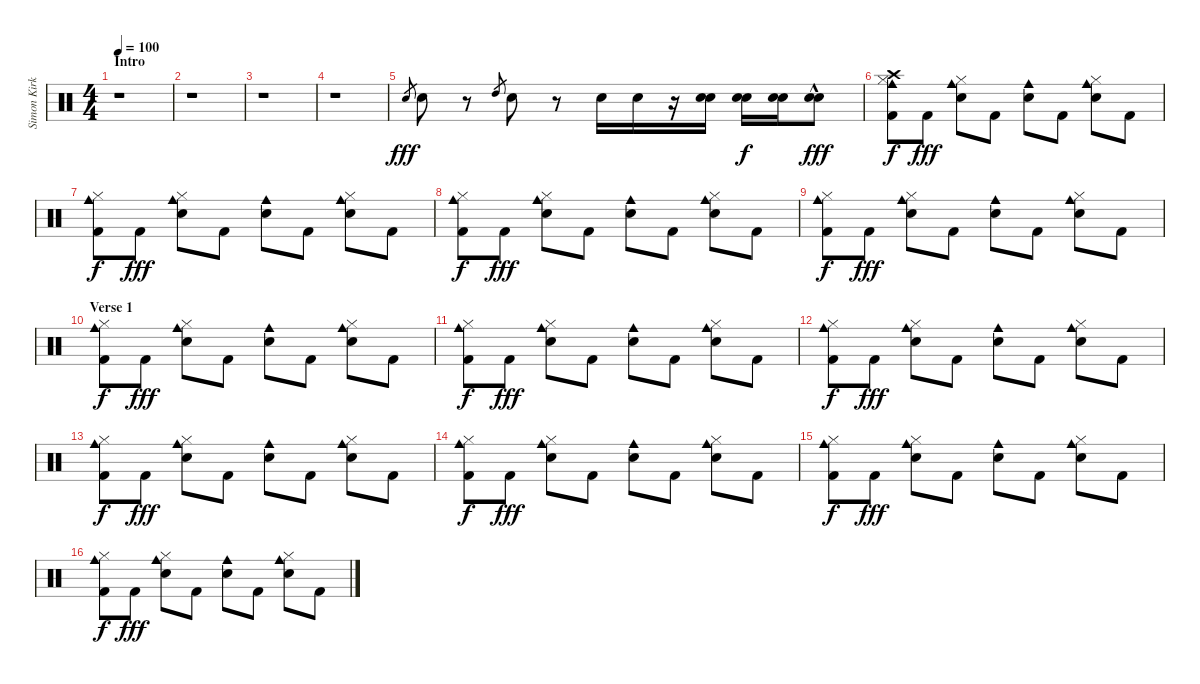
\track ("Simon Kirke" "Simon Kirk") {instrument percussion}
\staff {score}
\articulation defaults
\ts (4 4)
\section ("" "Intro")
\tempo 100
\clef neutral
\ks c
r.1{dy fff} |
r.1 |
r.1 |
r.1 |
"Electric Snare (hit)".8{gr} "Electric Snare (hit)".8 r.8 "High Tom (hit)".8{gr} "Electric Snare (hit)".8 r.8 "Electric Snare (hit)".16 "Electric Snare (hit)".16 r.16 ("Electric Snare (hit)" "Electric Snare (hit)").16 ("Electric Snare (hit)" "Electric Snare (hit)").16{dy f} ("Electric Snare (hit)" "Electric Snare (hit)").16 ("Electric Snare (hit)" "Electric Snare (hit)"{hac}).8{dy fff} |
("Kick (hit) 2" "Cowbell medium (hit)" "Hi-Hat (closed)" "Crash high (hit)").8{dy f} "Kick (hit) 2".8{dy fff} ("Cowbell medium (hit)" "Electric Snare (hit)" "Hi-Hat (closed)").8 "Kick (hit) 2".8 ("Cowbell medium (hit)" "Electric Snare (hit)").8 "Kick (hit) 2".8 ("Cowbell medium (hit)" "Electric Snare (hit)" "Hi-Hat (closed)").8 "Kick (hit) 2".8 |
("Kick (hit) 2" "Cowbell medium (hit)" "Hi-Hat (closed)").8{dy f} "Kick (hit) 2".8{dy fff} ("Cowbell medium (hit)" "Electric Snare (hit)" "Hi-Hat (closed)").8 "Kick (hit) 2".8 ("Cowbell medium (hit)" "Electric Snare (hit)").8 "Kick (hit) 2".8 ("Cowbell medium (hit)" "Electric Snare (hit)" "Hi-Hat (closed)").8 "Kick (hit) 2".8 |
("Kick (hit) 2" "Cowbell medium (hit)" "Hi-Hat (closed)").8{dy f} "Kick (hit) 2".8{dy fff} ("Cowbell medium (hit)" "Electric Snare (hit)" "Hi-Hat (closed)").8 "Kick (hit) 2".8 ("Cowbell medium (hit)" "Electric Snare (hit)").8 "Kick (hit) 2".8 ("Cowbell medium (hit)" "Electric Snare (hit)" "Hi-Hat (closed)").8 "Kick (hit) 2".8 |
("Kick (hit) 2" "Cowbell medium (hit)" "Hi-Hat (closed)").8{dy f} "Kick (hit) 2".8{dy fff} ("Cowbell medium (hit)" "Electric Snare (hit)" "Hi-Hat (closed)").8 "Kick (hit) 2".8 ("Cowbell medium (hit)" "Electric Snare (hit)").8 "Kick (hit) 2".8 ("Cowbell medium (hit)" "Electric Snare (hit)" "Hi-Hat (closed)").8 "Kick (hit) 2".8 |
\section ("" "Verse 1")
("Kick (hit) 2" "Cowbell medium (hit)" "Hi-Hat (closed)").8{dy f} "Kick (hit) 2".8{dy fff} ("Cowbell medium (hit)" "Electric Snare (hit)" "Hi-Hat (closed)").8 "Kick (hit) 2".8 ("Cowbell medium (hit)" "Electric Snare (hit)").8 "Kick (hit) 2".8 ("Cowbell medium (hit)" "Electric Snare (hit)" "Hi-Hat (closed)").8 "Kick (hit) 2".8 |
("Kick (hit) 2" "Cowbell medium (hit)" "Hi-Hat (closed)").8{dy f} "Kick (hit) 2".8{dy fff} ("Cowbell medium (hit)" "Electric Snare (hit)" "Hi-Hat (closed)").8 "Kick (hit) 2".8 ("Cowbell medium (hit)" "Electric Snare (hit)").8 "Kick (hit) 2".8 ("Cowbell medium (hit)" "Electric Snare (hit)" "Hi-Hat (closed)").8 "Kick (hit) 2".8 |
("Kick (hit) 2" "Cowbell medium (hit)" "Hi-Hat (closed)").8{dy f} "Kick (hit) 2".8{dy fff} ("Cowbell medium (hit)" "Electric Snare (hit)" "Hi-Hat (closed)").8 "Kick (hit) 2".8 ("Cowbell medium (hit)" "Electric Snare (hit)").8 "Kick (hit) 2".8 ("Cowbell medium (hit)" "Electric Snare (hit)" "Hi-Hat (closed)").8 "Kick (hit) 2".8 |
("Kick (hit) 2" "Cowbell medium (hit)" "Hi-Hat (closed)").8{dy f} "Kick (hit) 2".8{dy fff} ("Cowbell medium (hit)" "Electric Snare (hit)" "Hi-Hat (closed)").8 "Kick (hit) 2".8 ("Cowbell medium (hit)" "Electric Snare (hit)").8 "Kick (hit) 2".8 ("Cowbell medium (hit)" "Electric Snare (hit)" "Hi-Hat (closed)").8 "Kick (hit) 2".8 |
("Kick (hit) 2" "Cowbell medium (hit)" "Hi-Hat (closed)").8{dy f} "Kick (hit) 2".8{dy fff} ("Cowbell medium (hit)" "Electric Snare (hit)" "Hi-Hat (closed)").8 "Kick (hit) 2".8 ("Cowbell medium (hit)" "Electric Snare (hit)").8 "Kick (hit) 2".8 ("Cowbell medium (hit)" "Electric Snare (hit)" "Hi-Hat (closed)").8 "Kick (hit) 2".8 |
("Kick (hit) 2" "Cowbell medium (hit)" "Hi-Hat (closed)").8{dy f} "Kick (hit) 2".8{dy fff} ("Cowbell medium (hit)" "Electric Snare (hit)" "Hi-Hat (closed)").8 "Kick (hit) 2".8 ("Cowbell medium (hit)" "Electric Snare (hit)").8 "Kick (hit) 2".8 ("Cowbell medium (hit)" "Electric Snare (hit)" "Hi-Hat (closed)").8 "Kick (hit) 2".8 |
("Kick (hit) 2" "Cowbell medium (hit)" "Hi-Hat (closed)").8{dy f} "Kick (hit) 2".8{dy fff} ("Cowbell medium (hit)" "Electric Snare (hit)" "Hi-Hat (closed)").8 "Kick (hit) 2".8 ("Cowbell medium (hit)" "Electric Snare (hit)").8 "Kick (hit) 2".8 ("Cowbell medium (hit)" "Electric Snare (hit)" "Hi-Hat (closed)").8 "Kick (hit) 2".8
